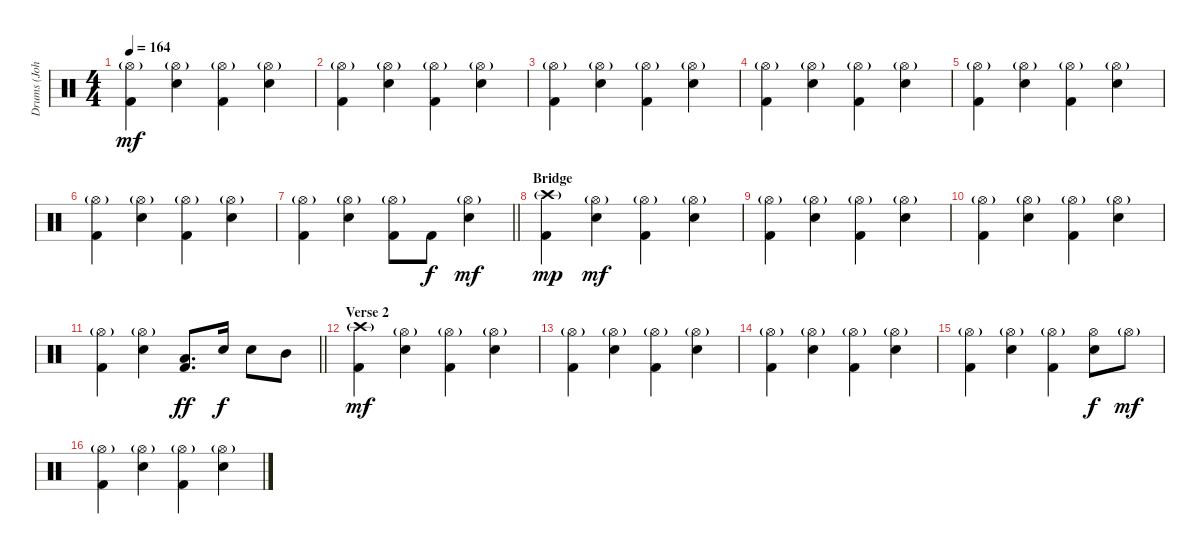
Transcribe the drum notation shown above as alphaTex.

\track ("Drums (John O'Reilly)" "Drums (Joh") {instrument percussion}
\staff {score}
\articulation defaults
\ts (4 4)
\tempo 164
\clef neutral
\ks c
("Hi-Hat (open)"{g} "Kick (hit) 2").4{dy mf} ("Hi-Hat (open)"{g} "Electric Snare (hit)").4 ("Hi-Hat (open)"{g} "Kick (hit) 2").4 ("Hi-Hat (open)"{g} "Electric Snare (hit)").4 |
("Hi-Hat (open)"{g} "Kick (hit) 2").4 ("Hi-Hat (open)"{g} "Electric Snare (hit)").4 ("Hi-Hat (open)"{g} "Kick (hit) 2").4 ("Hi-Hat (open)"{g} "Electric Snare (hit)").4 |
("Hi-Hat (open)"{g} "Kick (hit) 2").4 ("Hi-Hat (open)"{g} "Electric Snare (hit)").4 ("Hi-Hat (open)"{g} "Kick (hit) 2").4 ("Hi-Hat (open)"{g} "Electric Snare (hit)").4 |
("Hi-Hat (open)"{g} "Kick (hit) 2").4 ("Hi-Hat (open)"{g} "Electric Snare (hit)").4 ("Hi-Hat (open)"{g} "Kick (hit) 2").4 ("Hi-Hat (open)"{g} "Electric Snare (hit)").4 |
("Hi-Hat (open)"{g} "Kick (hit) 2").4 ("Hi-Hat (open)"{g} "Electric Snare (hit)").4 ("Hi-Hat (open)"{g} "Kick (hit) 2").4 ("Hi-Hat (open)"{g} "Electric Snare (hit)").4 |
("Hi-Hat (open)"{g} "Kick (hit) 2").4 ("Hi-Hat (open)"{g} "Electric Snare (hit)").4 ("Hi-Hat (open)"{g} "Kick (hit) 2").4 ("Hi-Hat (open)"{g} "Electric Snare (hit)").4 |
\barLineRight lightlight
("Hi-Hat (open)"{g} "Kick (hit) 2").4 ("Hi-Hat (open)"{g} "Electric Snare (hit)").4 ("Hi-Hat (open)"{g} "Kick (hit) 2").8 "Kick (hit) 2".8{dy f} ("Hi-Hat (open)"{g} "Electric Snare (hit)").4{dy mf} |
\section ("" "Bridge")
("Crash high (hit)"{g} "Kick (hit) 2").4{dy mp} ("Hi-Hat (open)"{g} "Electric Snare (hit)").4{dy mf} ("Hi-Hat (open)"{g} "Kick (hit) 2").4 ("Hi-Hat (open)"{g} "Electric Snare (hit)").4 |
("Hi-Hat (open)"{g} "Kick (hit) 2").4 ("Hi-Hat (open)"{g} "Electric Snare (hit)").4 ("Hi-Hat (open)"{g} "Kick (hit) 2").4 ("Hi-Hat (open)"{g} "Electric Snare (hit)").4 |
("Hi-Hat (open)"{g} "Kick (hit) 2").4 ("Hi-Hat (open)"{g} "Electric Snare (hit)").4 ("Hi-Hat (open)"{g} "Kick (hit) 2").4 ("Hi-Hat (open)"{g} "Electric Snare (hit)").4 |
\barLineRight lightlight
("Hi-Hat (open)"{g} "Kick (hit) 2").4 ("Hi-Hat (open)"{g} "Electric Snare (hit)").4 ("Low Tom (hit)" "Kick (hit) 2").8{d dy ff} "Electric Snare (hit)".16{dy f} "Electric Snare (hit)".8 "Mid Tom (hit)".8 |
\section ("" "Verse 2")
("Crash high (hit)"{g} "Kick (hit) 2").4{dy mf} ("Hi-Hat (open)"{g} "Electric Snare (hit)").4 ("Hi-Hat (open)"{g} "Kick (hit) 2").4 ("Hi-Hat (open)"{g} "Electric Snare (hit)").4 |
("Hi-Hat (open)"{g} "Kick (hit) 2").4 ("Hi-Hat (open)"{g} "Electric Snare (hit)").4 ("Hi-Hat (open)"{g} "Kick (hit) 2").4 ("Hi-Hat (open)"{g} "Electric Snare (hit)").4 |
("Hi-Hat (open)"{g} "Kick (hit) 2").4 ("Hi-Hat (open)"{g} "Electric Snare (hit)").4 ("Hi-Hat (open)"{g} "Kick (hit) 2").4 ("Hi-Hat (open)"{g} "Electric Snare (hit)").4 |
("Hi-Hat (open)"{g} "Kick (hit) 2").4 ("Hi-Hat (open)"{g} "Electric Snare (hit)").4 ("Hi-Hat (open)"{g} "Kick (hit) 2").4 ("Hi-Hat (open)" "Electric Snare (hit)").8{dy f} "Hi-Hat (open)"{g}.8{dy mf} |
("Hi-Hat (open)"{g} "Kick (hit) 2").4 ("Hi-Hat (open)"{g} "Electric Snare (hit)").4 ("Hi-Hat (open)"{g} "Kick (hit) 2").4 ("Hi-Hat (open)"{g} "Electric Snare (hit)").4
